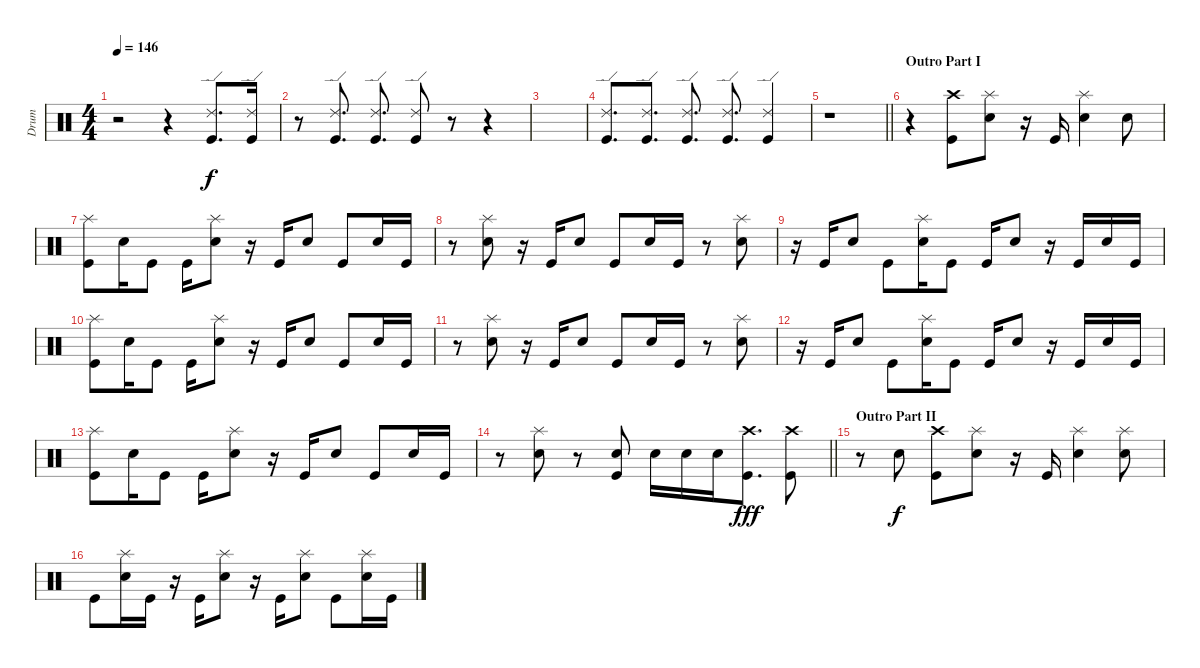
\track ("Drum" "Drum") {instrument percussion}
\staff {score}
\articulation defaults
\ts (4 4)
\tempo 146
\clef neutral
\ks c
r.2{dy f} r.4 ("Ride (edge) 2" "Kick (hit)").8{d} ("Ride (edge) 2" "Kick (hit)").16 |
r.8 ("Ride (edge) 2" "Kick (hit)").8{d} ("Ride (edge) 2" "Kick (hit)").8{d} ("Ride (edge) 2" "Kick (hit)").8 r.8 r.4 |
|
("Ride (edge) 2" "Kick (hit)").8{d} ("Ride (edge) 2" "Kick (hit)").8{d} ("Ride (edge) 2" "Kick (hit)").8{d} ("Ride (edge) 2" "Kick (hit)").8{d} ("Ride (edge) 2" "Kick (hit)").4 |
\barLineRight lightlight
r.1 |
\section ("" "Outro Part I")
r.4 ("Crash high (hit)" "Kick (hit)").8 ("Splash (hit)" "Snare (hit) 2").8 r.16 "Kick (hit)".16 ("Splash (hit)" "Snare (hit) 2").4 "Snare (hit) 2".8 |
("Splash (hit)" "Kick (hit)").8 "Snare (hit) 2".16 "Kick (hit)".8 "Kick (hit)".16 ("Splash (hit)" "Snare (hit) 2").8 r.16 "Kick (hit)".16 "Snare (hit) 2".8 "Kick (hit)".8 "Snare (hit) 2".16 "Kick (hit)".16 |
r.8 ("Splash (hit)" "Snare (hit) 2").8 r.16 "Kick (hit)".16 "Snare (hit) 2".8 "Kick (hit)".8 "Snare (hit) 2".16 "Kick (hit)".16 r.8 ("Splash (hit)" "Snare (hit) 2").8 |
r.16 "Kick (hit)".16 "Snare (hit) 2".8 "Kick (hit)".8 ("Splash (hit)" "Snare (hit) 2").16 "Kick (hit)".8 "Kick (hit)".16 "Snare (hit) 2".8 r.16 "Kick (hit)".16 "Snare (hit) 2".16 "Kick (hit)".16 |
("Splash (hit)" "Kick (hit)").8 "Snare (hit) 2".16 "Kick (hit)".8 "Kick (hit)".16 ("Splash (hit)" "Snare (hit) 2").8 r.16 "Kick (hit)".16 "Snare (hit) 2".8 "Kick (hit)".8 "Snare (hit) 2".16 "Kick (hit)".16 |
r.8 ("Splash (hit)" "Snare (hit) 2").8 r.16 "Kick (hit)".16 "Snare (hit) 2".8 "Kick (hit)".8 "Snare (hit) 2".16 "Kick (hit)".16 r.8 ("Splash (hit)" "Snare (hit) 2").8 |
r.16 "Kick (hit)".16 "Snare (hit) 2".8 "Kick (hit)".8 ("Splash (hit)" "Snare (hit) 2").16 "Kick (hit)".8 "Kick (hit)".16 "Snare (hit) 2".8 r.16 "Kick (hit)".16 "Snare (hit) 2".16 "Kick (hit)".16 |
("Splash (hit)" "Kick (hit)").8 "Snare (hit) 2".16 "Kick (hit)".8 "Kick (hit)".16 ("Splash (hit)" "Snare (hit) 2").8 r.16 "Kick (hit)".16 "Snare (hit) 2".8 "Kick (hit)".8 "Snare (hit) 2".16 "Kick (hit)".16 |
\barLineRight lightlight
r.8 ("Splash (hit)" "Snare (hit) 2").8 r.8 ("Snare (hit) 2" "Kick (hit)").8 "Snare (hit) 2".16 "Snare (hit) 2".16 "Snare (hit) 2".16 ("Crash high (hit)" "Kick (hit)").8{d dy fff} ("Crash high (hit)" "Kick (hit)").8 |
\section ("" "Outro Part II")
r.8 "Hand Clap (hit)".8{dy f} ("Crash high (hit)" "Kick (hit)").8 ("Splash (hit)" "Snare (hit) 2").8 r.16 "Kick (hit)".16 ("Splash (hit)" "Snare (hit) 2").4 ("Splash (hit)" "Snare (hit) 2").8 |
"Kick (hit)".8 ("Splash (hit)" "Snare (hit) 2").16 "Kick (hit)".16 r.16 "Kick (hit)".16 ("Splash (hit)" "Snare (hit) 2").8 r.16 "Kick (hit)".16 ("Splash (hit)" "Snare (hit) 2").8 "Kick (hit)".8 ("Splash (hit)" "Snare (hit) 2").16 "Kick (hit)".16
